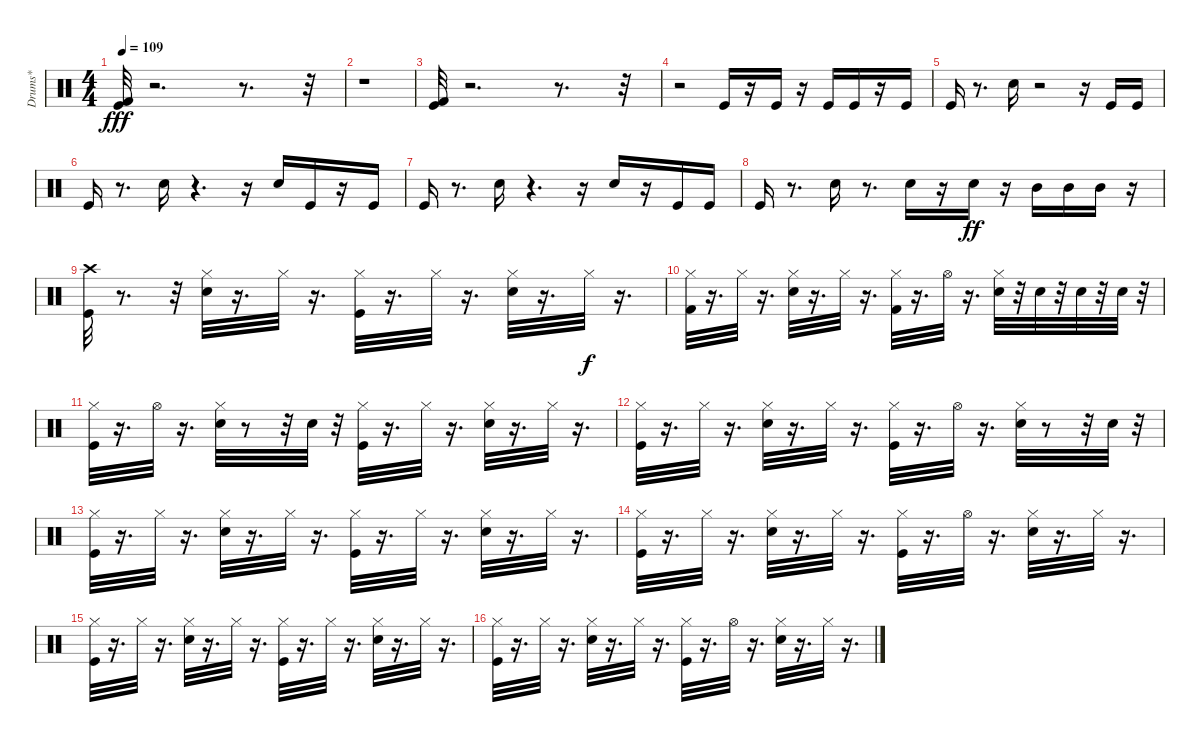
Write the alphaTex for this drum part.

\track ("Drums*" "Drums*") {instrument percussion}
\staff {score}
\articulation defaults
\ts (4 4)
\tempo 109
\clef neutral
\ks c
("Kick (hit) 2" "Kick (hit)").32{dy fff} r.2{d} r.8{d} r.32 |
r.1 |
("Kick (hit)" "Kick (hit) 2").32 r.2{d} r.8{d} r.32 |
r.2 "Kick (hit)".16 r.16 "Kick (hit)".16 r.16 "Kick (hit)".16 "Kick (hit)".16 r.16 "Kick (hit)".16 |
"Kick (hit)".16 r.8{d} "Snare (hit) 2".16 r.2 r.16 "Kick (hit)".16 "Kick (hit)".16 |
"Kick (hit)".16 r.8{d} "Snare (hit) 2".16 r.4{d} r.16 "Snare (hit) 2".16 "Kick (hit)".16 r.16 "Kick (hit)".16 |
"Kick (hit)".16 r.8{d} "Snare (hit) 2".16 r.4{d} r.16 "Snare (hit) 2".16 r.16 "Kick (hit)".16 "Kick (hit)".16 |
"Kick (hit)".16 r.8{d} "Snare (hit) 2".16 r.8{d} "Electric Snare (hit)".16 r.16 "Electric Snare (hit)".16{dy ff} r.16 "Mid Tom (hit)".16 "Mid Tom (hit)".16 "Mid Tom (hit)".16 r.16 |
("Crash high (hit)" "Kick (hit)").32 r.8{d} r.32 ("Hi-Hat (closed)" "Snare (hit) 2").32 r.16{d} "Hi-Hat (closed)".32 r.16{d} ("Hi-Hat (closed)" "Kick (hit)").32 r.16{d} "Hi-Hat (closed)".32 r.16{d} ("Hi-Hat (closed)" "Snare (hit) 2").32 r.16{d} "Hi-Hat (closed)".32{dy f} r.16{d} |
("Kick (hit) 2" "Hi-Hat (closed)").32 r.16{d} "Hi-Hat (closed)".32 r.16{d} ("Snare (hit) 2" "Hi-Hat (closed)").32 r.16{d} "Hi-Hat (closed)".32 r.16{d} ("Kick (hit) 2" "Hi-Hat (closed)").32 r.16{d} "Hi-Hat (open)".32 r.16{d} ("Electric Snare (hit)" "Hi-Hat (closed)").32 r.32 "Electric Snare (hit)".32 r.32 "Electric Snare (hit)".32 r.32 "Electric Snare (hit)".32 r.32 |
("Kick (hit)" "Hi-Hat (closed)").32 r.16{d} "Hi-Hat (open)".32 r.16{d} ("Snare (hit) 2" "Hi-Hat (closed)").32 r.8 r.32 "Snare (hit) 2".32 r.32 ("Kick (hit)" "Hi-Hat (closed)").32 r.16{d} "Hi-Hat (closed)".32 r.16{d} ("Snare (hit) 2" "Hi-Hat (closed)").32 r.16{d} "Hi-Hat (closed)".32 r.16{d} |
("Hi-Hat (closed)" "Kick (hit)").32 r.16{d} "Hi-Hat (closed)".32 r.16{d} ("Hi-Hat (closed)" "Snare (hit) 2").32 r.16{d} "Hi-Hat (closed)".32 r.16{d} ("Hi-Hat (closed)" "Kick (hit)").32 r.16{d} "Hi-Hat (open)".32 r.16{d} ("Hi-Hat (closed)" "Snare (hit) 2").32 r.8 r.32 "Snare (hit) 2".32 r.32 |
("Kick (hit)" "Hi-Hat (closed)").32 r.16{d} "Hi-Hat (closed)".32 r.16{d} ("Snare (hit) 2" "Hi-Hat (closed)").32 r.16{d} "Hi-Hat (closed)".32 r.16{d} ("Kick (hit)" "Hi-Hat (closed)").32 r.16{d} "Hi-Hat (closed)".32 r.16{d} ("Snare (hit) 2" "Hi-Hat (closed)").32 r.16{d} "Hi-Hat (closed)".32 r.16{d} |
("Kick (hit)" "Hi-Hat (closed)").32 r.16{d} "Hi-Hat (closed)".32 r.16{d} ("Snare (hit) 2" "Hi-Hat (closed)").32 r.16{d} "Hi-Hat (closed)".32 r.16{d} ("Kick (hit)" "Hi-Hat (closed)").32 r.16{d} "Hi-Hat (open)".32 r.16{d} ("Snare (hit) 2" "Hi-Hat (closed)").32 r.16{d} "Hi-Hat (closed)".32 r.16{d} |
("Kick (hit)" "Hi-Hat (closed)").32 r.16{d} "Hi-Hat (closed)".32 r.16{d} ("Snare (hit) 2" "Hi-Hat (closed)").32 r.16{d} "Hi-Hat (closed)".32 r.16{d} ("Kick (hit)" "Hi-Hat (closed)").32 r.16{d} "Hi-Hat (closed)".32 r.16{d} ("Snare (hit) 2" "Hi-Hat (closed)").32 r.16{d} "Hi-Hat (closed)".32 r.16{d} |
("Kick (hit)" "Hi-Hat (closed)").32 r.16{d} "Hi-Hat (closed)".32 r.16{d} ("Snare (hit) 2" "Hi-Hat (closed)").32 r.16{d} "Hi-Hat (closed)".32 r.16{d} ("Kick (hit)" "Hi-Hat (closed)").32 r.16{d} "Hi-Hat (open)".32 r.16{d} ("Snare (hit) 2" "Hi-Hat (closed)").32 r.16{d} "Hi-Hat (closed)".32 r.16{d}
